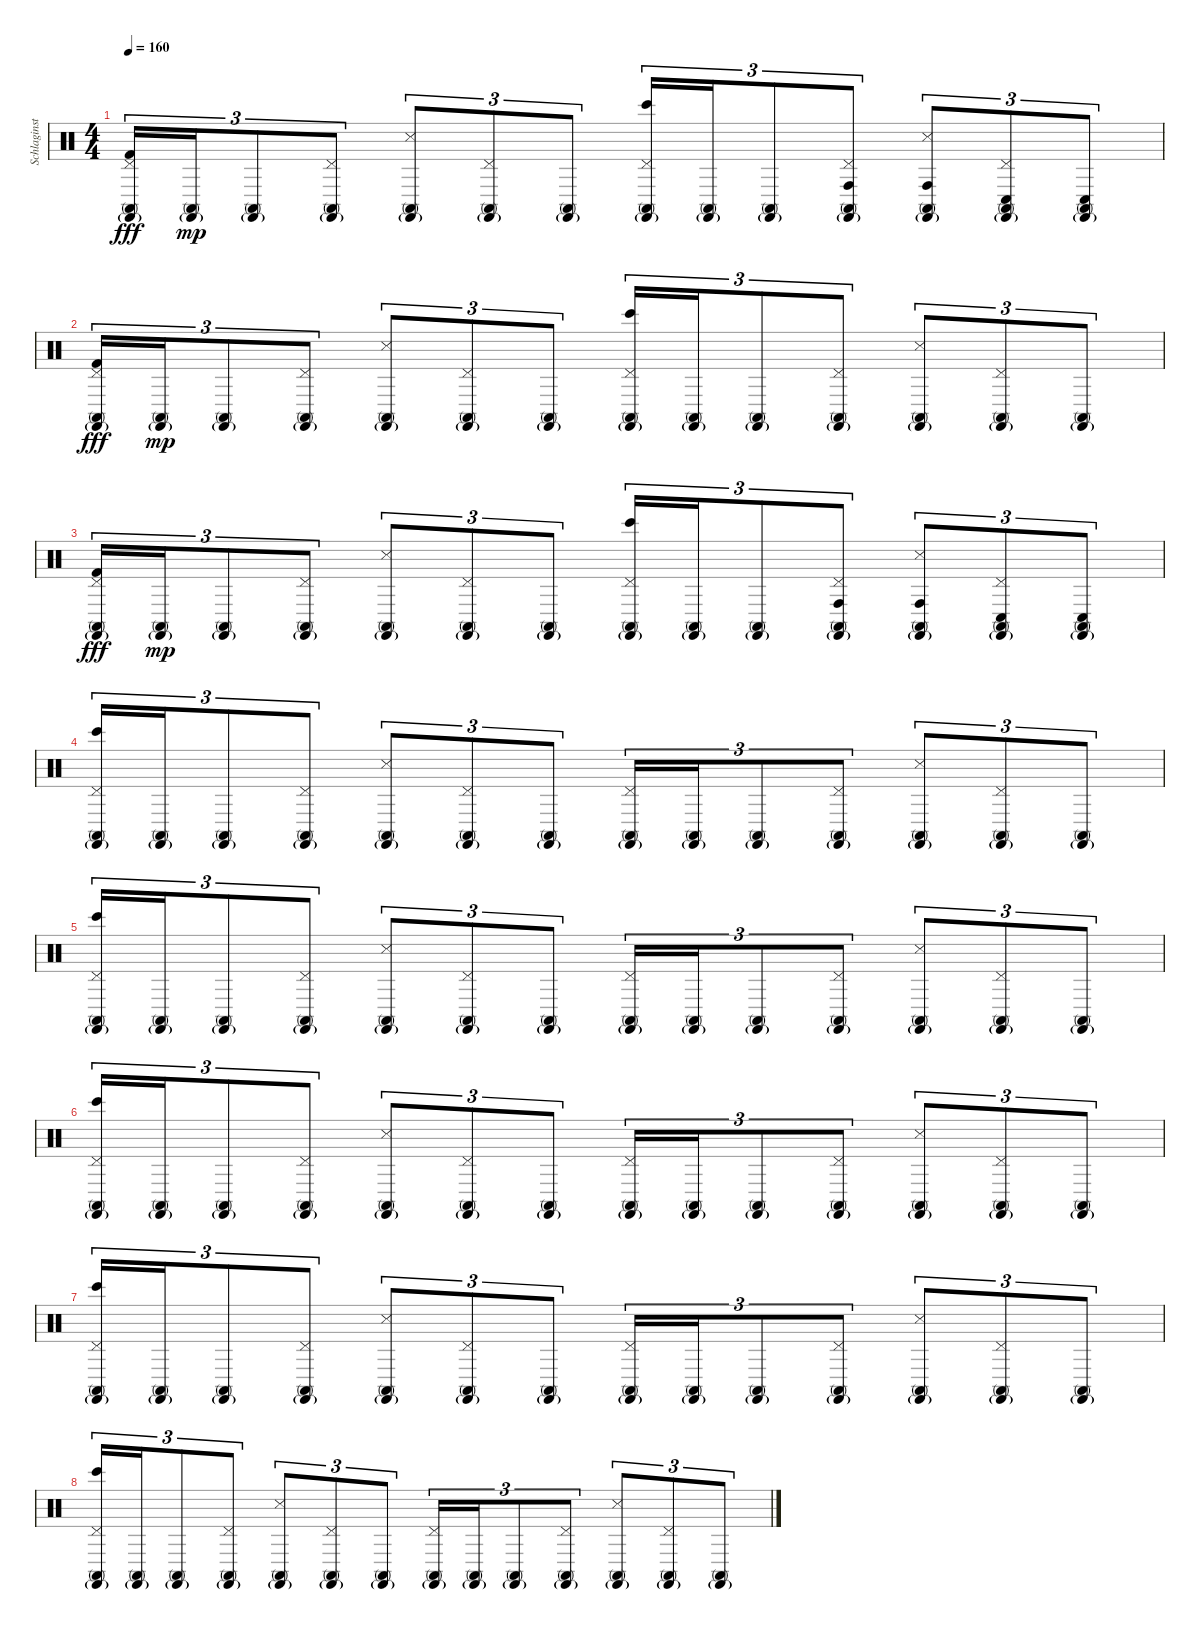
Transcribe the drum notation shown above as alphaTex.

\track ("Schlaginstrumente - Auswahl" "Schlaginst") {instrument percussion}
\staff {score}
\articulation defaults
\ts (4 4)
\tempo 160
\clef neutral
\ks c
("Pedal Hi-Hat (hit)" "Castanets (hit)"{g} "Kick (hit) 2" "Conga high (mute)").16{tu (3 2) dy fff} ("Castanets (hit)"{g} "Conga high (mute)").16{tu (3 2) dy mp} ("Castanets (hit)"{g} "Conga high (mute)").8{tu (3 2)} ("Pedal Hi-Hat (hit)" "Castanets (hit)"{g} "Conga high (mute)").8{tu (3 2)} ("Castanets (hit)"{g} "Snare (side stick) 3" "Conga high (mute)").8{tu (3 2)} ("Pedal Hi-Hat (hit)" "Castanets (hit)"{g} "Conga high (mute)").8{tu (3 2)} ("Castanets (hit)"{g} "Conga high (mute)").8{tu (3 2)} ("Pedal Hi-Hat (hit)" "Castanets (hit)"{g} "Bongo High (hit)" "Conga high (mute)").16{tu (3 2)} ("Castanets (hit)"{g} "Conga high (mute)").16{tu (3 2)} ("Castanets (hit)"{g} "Conga high (mute)").8{tu (3 2)} ("Pedal Hi-Hat (hit)" "Castanets (hit)"{g} "Conga high (hit)" "Conga high (mute)").8{tu (3 2)} ("Castanets (hit)"{g} "Snare (side stick) 3" "Conga high (hit)" "Conga high (mute)").8{tu (3 2)} ("Pedal Hi-Hat (hit)" "Castanets (hit)"{g} "Conga low (hit)" "Conga high (mute)").8{tu (3 2)} ("Castanets (hit)"{g} "Conga low (hit)" "Conga high (mute)").8{tu (3 2)} |
("Pedal Hi-Hat (hit)" "Castanets (hit)"{g} "Kick (hit) 2" "Conga high (mute)").16{tu (3 2) dy fff} ("Castanets (hit)"{g} "Conga high (mute)").16{tu (3 2) dy mp} ("Castanets (hit)"{g} "Conga high (mute)").8{tu (3 2)} ("Pedal Hi-Hat (hit)" "Castanets (hit)"{g} "Conga high (mute)").8{tu (3 2)} ("Castanets (hit)"{g} "Snare (side stick) 3" "Conga high (mute)").8{tu (3 2)} ("Pedal Hi-Hat (hit)" "Castanets (hit)"{g} "Conga high (mute)").8{tu (3 2)} ("Castanets (hit)"{g} "Conga high (mute)").8{tu (3 2)} ("Pedal Hi-Hat (hit)" "Castanets (hit)"{g} "Bongo High (hit)" "Conga high (mute)").16{tu (3 2)} ("Castanets (hit)"{g} "Conga high (mute)").16{tu (3 2)} ("Castanets (hit)"{g} "Conga high (mute)").8{tu (3 2)} ("Pedal Hi-Hat (hit)" "Castanets (hit)"{g} "Conga high (mute)").8{tu (3 2)} ("Castanets (hit)"{g} "Snare (side stick) 3" "Conga high (mute)").8{tu (3 2)} ("Pedal Hi-Hat (hit)" "Castanets (hit)"{g} "Conga high (mute)").8{tu (3 2)} ("Castanets (hit)"{g} "Conga high (mute)").8{tu (3 2)} |
("Pedal Hi-Hat (hit)" "Castanets (hit)"{g} "Kick (hit) 2" "Conga high (mute)").16{tu (3 2) dy fff} ("Castanets (hit)"{g} "Conga high (mute)").16{tu (3 2) dy mp} ("Castanets (hit)"{g} "Conga high (mute)").8{tu (3 2)} ("Pedal Hi-Hat (hit)" "Castanets (hit)"{g} "Conga high (mute)").8{tu (3 2)} ("Castanets (hit)"{g} "Snare (side stick) 3" "Conga high (mute)").8{tu (3 2)} ("Pedal Hi-Hat (hit)" "Castanets (hit)"{g} "Conga high (mute)").8{tu (3 2)} ("Castanets (hit)"{g} "Conga high (mute)").8{tu (3 2)} ("Pedal Hi-Hat (hit)" "Castanets (hit)"{g} "Bongo High (hit)" "Conga high (mute)").16{tu (3 2)} ("Castanets (hit)"{g} "Conga high (mute)").16{tu (3 2)} ("Castanets (hit)"{g} "Conga high (mute)").8{tu (3 2)} ("Pedal Hi-Hat (hit)" "Castanets (hit)"{g} "Conga high (hit)" "Conga high (mute)").8{tu (3 2)} ("Castanets (hit)"{g} "Snare (side stick) 3" "Conga high (hit)" "Conga high (mute)").8{tu (3 2)} ("Pedal Hi-Hat (hit)" "Castanets (hit)"{g} "Conga low (hit)" "Conga high (mute)").8{tu (3 2)} ("Castanets (hit)"{g} "Conga low (hit)" "Conga high (mute)").8{tu (3 2)} |
("Pedal Hi-Hat (hit)" "Castanets (hit)"{g} "Bongo High (hit)" "Conga high (mute)").16{tu (3 2)} ("Castanets (hit)"{g} "Conga high (mute)").16{tu (3 2)} ("Castanets (hit)"{g} "Conga high (mute)").8{tu (3 2)} ("Pedal Hi-Hat (hit)" "Castanets (hit)"{g} "Conga high (mute)").8{tu (3 2)} ("Castanets (hit)"{g} "Snare (side stick) 3" "Conga high (mute)").8{tu (3 2)} ("Pedal Hi-Hat (hit)" "Castanets (hit)"{g} "Conga high (mute)").8{tu (3 2)} ("Castanets (hit)"{g} "Conga high (mute)").8{tu (3 2)} ("Pedal Hi-Hat (hit)" "Castanets (hit)"{g} "Conga high (mute)").16{tu (3 2)} ("Castanets (hit)"{g} "Conga high (mute)").16{tu (3 2)} ("Castanets (hit)"{g} "Conga high (mute)").8{tu (3 2)} ("Pedal Hi-Hat (hit)" "Castanets (hit)"{g} "Conga high (mute)").8{tu (3 2)} ("Castanets (hit)"{g} "Snare (side stick) 3" "Conga high (mute)").8{tu (3 2)} ("Pedal Hi-Hat (hit)" "Castanets (hit)"{g} "Conga high (mute)").8{tu (3 2)} ("Castanets (hit)"{g} "Conga high (mute)").8{tu (3 2)} |
("Pedal Hi-Hat (hit)" "Castanets (hit)"{g} "Bongo High (hit)" "Conga high (mute)").16{tu (3 2)} ("Castanets (hit)"{g} "Conga high (mute)").16{tu (3 2)} ("Castanets (hit)"{g} "Conga high (mute)").8{tu (3 2)} ("Pedal Hi-Hat (hit)" "Castanets (hit)"{g} "Conga high (mute)").8{tu (3 2)} ("Castanets (hit)"{g} "Snare (side stick) 3" "Conga high (mute)").8{tu (3 2)} ("Pedal Hi-Hat (hit)" "Castanets (hit)"{g} "Conga high (mute)").8{tu (3 2)} ("Castanets (hit)"{g} "Conga high (mute)").8{tu (3 2)} ("Pedal Hi-Hat (hit)" "Castanets (hit)"{g} "Conga high (mute)").16{tu (3 2)} ("Castanets (hit)"{g} "Conga high (mute)").16{tu (3 2)} ("Castanets (hit)"{g} "Conga high (mute)").8{tu (3 2)} ("Pedal Hi-Hat (hit)" "Castanets (hit)"{g} "Conga high (mute)").8{tu (3 2)} ("Castanets (hit)"{g} "Snare (side stick) 3" "Conga high (mute)").8{tu (3 2)} ("Pedal Hi-Hat (hit)" "Castanets (hit)"{g} "Conga high (mute)").8{tu (3 2)} ("Castanets (hit)"{g} "Conga high (mute)").8{tu (3 2)} |
("Pedal Hi-Hat (hit)" "Castanets (hit)"{g} "Bongo High (hit)" "Conga high (mute)").16{tu (3 2)} ("Castanets (hit)"{g} "Conga high (mute)").16{tu (3 2)} ("Castanets (hit)"{g} "Conga high (mute)").8{tu (3 2)} ("Pedal Hi-Hat (hit)" "Castanets (hit)"{g} "Conga high (mute)").8{tu (3 2)} ("Castanets (hit)"{g} "Snare (side stick) 3" "Conga high (mute)").8{tu (3 2)} ("Pedal Hi-Hat (hit)" "Castanets (hit)"{g} "Conga high (mute)").8{tu (3 2)} ("Castanets (hit)"{g} "Conga high (mute)").8{tu (3 2)} ("Pedal Hi-Hat (hit)" "Castanets (hit)"{g} "Conga high (mute)").16{tu (3 2)} ("Castanets (hit)"{g} "Conga high (mute)").16{tu (3 2)} ("Castanets (hit)"{g} "Conga high (mute)").8{tu (3 2)} ("Pedal Hi-Hat (hit)" "Castanets (hit)"{g} "Conga high (mute)").8{tu (3 2)} ("Castanets (hit)"{g} "Snare (side stick) 3" "Conga high (mute)").8{tu (3 2)} ("Pedal Hi-Hat (hit)" "Castanets (hit)"{g} "Conga high (mute)").8{tu (3 2)} ("Castanets (hit)"{g} "Conga high (mute)").8{tu (3 2)} |
("Pedal Hi-Hat (hit)" "Castanets (hit)"{g} "Bongo High (hit)" "Conga high (mute)").16{tu (3 2)} ("Castanets (hit)"{g} "Conga high (mute)").16{tu (3 2)} ("Castanets (hit)"{g} "Conga high (mute)").8{tu (3 2)} ("Pedal Hi-Hat (hit)" "Castanets (hit)"{g} "Conga high (mute)").8{tu (3 2)} ("Castanets (hit)"{g} "Snare (side stick) 3" "Conga high (mute)").8{tu (3 2)} ("Pedal Hi-Hat (hit)" "Castanets (hit)"{g} "Conga high (mute)").8{tu (3 2)} ("Castanets (hit)"{g} "Conga high (mute)").8{tu (3 2)} ("Pedal Hi-Hat (hit)" "Castanets (hit)"{g} "Conga high (mute)").16{tu (3 2)} ("Castanets (hit)"{g} "Conga high (mute)").16{tu (3 2)} ("Castanets (hit)"{g} "Conga high (mute)").8{tu (3 2)} ("Pedal Hi-Hat (hit)" "Castanets (hit)"{g} "Conga high (mute)").8{tu (3 2)} ("Castanets (hit)"{g} "Snare (side stick) 3" "Conga high (mute)").8{tu (3 2)} ("Pedal Hi-Hat (hit)" "Castanets (hit)"{g} "Conga high (mute)").8{tu (3 2)} ("Castanets (hit)"{g} "Conga high (mute)").8{tu (3 2)} |
("Pedal Hi-Hat (hit)" "Castanets (hit)"{g} "Bongo High (hit)" "Conga high (mute)").16{tu (3 2)} ("Castanets (hit)"{g} "Conga high (mute)").16{tu (3 2)} ("Castanets (hit)"{g} "Conga high (mute)").8{tu (3 2)} ("Pedal Hi-Hat (hit)" "Castanets (hit)"{g} "Conga high (mute)").8{tu (3 2)} ("Castanets (hit)"{g} "Snare (side stick) 3" "Conga high (mute)").8{tu (3 2)} ("Pedal Hi-Hat (hit)" "Castanets (hit)"{g} "Conga high (mute)").8{tu (3 2)} ("Castanets (hit)"{g} "Conga high (mute)").8{tu (3 2)} ("Pedal Hi-Hat (hit)" "Castanets (hit)"{g} "Conga high (mute)").16{tu (3 2)} ("Castanets (hit)"{g} "Conga high (mute)").16{tu (3 2)} ("Castanets (hit)"{g} "Conga high (mute)").8{tu (3 2)} ("Pedal Hi-Hat (hit)" "Castanets (hit)"{g} "Conga high (mute)").8{tu (3 2)} ("Castanets (hit)"{g} "Snare (side stick) 3" "Conga high (mute)").8{tu (3 2)} ("Pedal Hi-Hat (hit)" "Castanets (hit)"{g} "Conga high (mute)").8{tu (3 2)} ("Castanets (hit)"{g} "Conga high (mute)").8{tu (3 2)}
